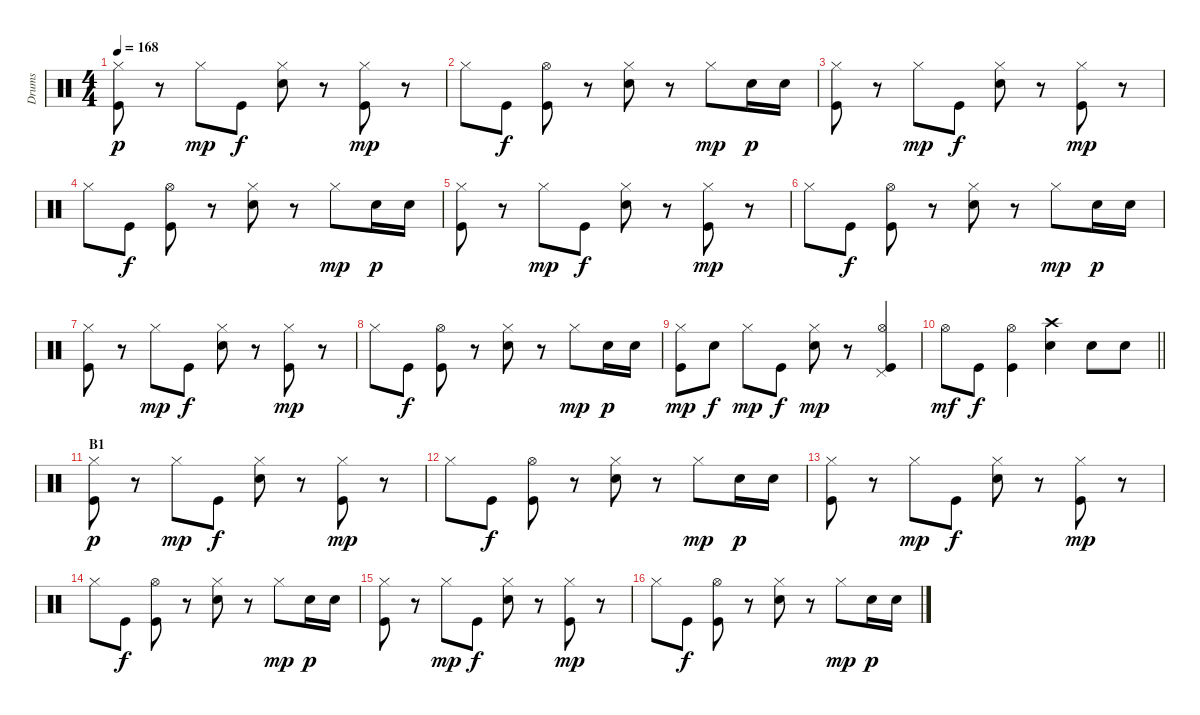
\track ("Drums" "Drums") {instrument percussion}
\staff {score}
\articulation defaults
\ts (4 4)
\tempo 168
\clef neutral
\ks c
("Hi-Hat (closed)" "Kick (hit)").8{dy p} r.8 "Hi-Hat (closed)".8{dy mp} "Kick (hit)".8{dy f} ("Hi-Hat (closed)" "Electric Snare (hit)").8 r.8 ("Hi-Hat (closed)" "Kick (hit)").8{dy mp} r.8 |
"Hi-Hat (closed)".8 "Kick (hit)".8{dy f} ("Hi-Hat (open)" "Kick (hit)").8 r.8 ("Hi-Hat (closed)" "Electric Snare (hit)").8 r.8 "Hi-Hat (closed)".8{dy mp} "Electric Snare (hit)".16{dy p} "Electric Snare (hit)".16 |
("Hi-Hat (closed)" "Kick (hit)").8 r.8 "Hi-Hat (closed)".8{dy mp} "Kick (hit)".8{dy f} ("Hi-Hat (closed)" "Electric Snare (hit)").8 r.8 ("Hi-Hat (closed)" "Kick (hit)").8{dy mp} r.8 |
"Hi-Hat (closed)".8 "Kick (hit)".8{dy f} ("Hi-Hat (open)" "Kick (hit)").8 r.8 ("Hi-Hat (closed)" "Electric Snare (hit)").8 r.8 "Hi-Hat (closed)".8{dy mp} "Electric Snare (hit)".16{dy p} "Electric Snare (hit)".16 |
("Hi-Hat (closed)" "Kick (hit)").8 r.8 "Hi-Hat (closed)".8{dy mp} "Kick (hit)".8{dy f} ("Hi-Hat (closed)" "Electric Snare (hit)").8 r.8 ("Hi-Hat (closed)" "Kick (hit)").8{dy mp} r.8 |
"Hi-Hat (closed)".8 "Kick (hit)".8{dy f} ("Hi-Hat (open)" "Kick (hit)").8 r.8 ("Hi-Hat (closed)" "Electric Snare (hit)").8 r.8 "Hi-Hat (closed)".8{dy mp} "Electric Snare (hit)".16{dy p} "Electric Snare (hit)".16 |
("Hi-Hat (closed)" "Kick (hit)").8 r.8 "Hi-Hat (closed)".8{dy mp} "Kick (hit)".8{dy f} ("Hi-Hat (closed)" "Electric Snare (hit)").8 r.8 ("Hi-Hat (closed)" "Kick (hit)").8{dy mp} r.8 |
"Hi-Hat (closed)".8 "Kick (hit)".8{dy f} ("Hi-Hat (open)" "Kick (hit)").8 r.8 ("Hi-Hat (closed)" "Electric Snare (hit)").8 r.8 "Hi-Hat (closed)".8{dy mp} "Electric Snare (hit)".16{dy p} "Electric Snare (hit)".16 |
("Hi-Hat (closed)" "Kick (hit)").8{dy mp} "Electric Snare (hit)".8{dy f} "Hi-Hat (closed)".8{dy mp} "Kick (hit)".8{dy f} ("Hi-Hat (closed)" "Electric Snare (hit)").8{dy mp} r.8 ("Pedal Hi-Hat (hit)" "Hi-Hat (open)" "Kick (hit)").4 |
\barLineRight lightlight "Hi-Hat (open)".8{dy mf} "Kick (hit)".8{dy f}
("Hi-Hat (open)" "Kick (hit)").4 ("Crash high (hit)" "Electric Snare (hit)").4 "Electric Snare (hit)".8 "Electric Snare (hit)".8 |
\section ("" "B1")
("Hi-Hat (closed)" "Kick (hit)").8{dy p} r.8 "Hi-Hat (closed)".8{dy mp} "Kick (hit)".8{dy f} ("Hi-Hat (closed)" "Electric Snare (hit)").8 r.8 ("Hi-Hat (closed)" "Kick (hit)").8{dy mp} r.8 |
"Hi-Hat (closed)".8 "Kick (hit)".8{dy f} ("Hi-Hat (open)" "Kick (hit)").8 r.8 ("Hi-Hat (closed)" "Electric Snare (hit)").8 r.8 "Hi-Hat (closed)".8{dy mp} "Electric Snare (hit)".16{dy p} "Electric Snare (hit)".16 |
("Hi-Hat (closed)" "Kick (hit)").8 r.8 "Hi-Hat (closed)".8{dy mp} "Kick (hit)".8{dy f} ("Hi-Hat (closed)" "Electric Snare (hit)").8 r.8 ("Hi-Hat (closed)" "Kick (hit)").8{dy mp} r.8 |
"Hi-Hat (closed)".8 "Kick (hit)".8{dy f} ("Hi-Hat (open)" "Kick (hit)").8 r.8 ("Hi-Hat (closed)" "Electric Snare (hit)").8 r.8 "Hi-Hat (closed)".8{dy mp} "Electric Snare (hit)".16{dy p} "Electric Snare (hit)".16 |
("Hi-Hat (closed)" "Kick (hit)").8 r.8 "Hi-Hat (closed)".8{dy mp} "Kick (hit)".8{dy f} ("Hi-Hat (closed)" "Electric Snare (hit)").8 r.8 ("Hi-Hat (closed)" "Kick (hit)").8{dy mp} r.8 |
"Hi-Hat (closed)".8 "Kick (hit)".8{dy f} ("Hi-Hat (open)" "Kick (hit)").8 r.8 ("Hi-Hat (closed)" "Electric Snare (hit)").8 r.8 "Hi-Hat (closed)".8{dy mp} "Electric Snare (hit)".16{dy p} "Electric Snare (hit)".16
